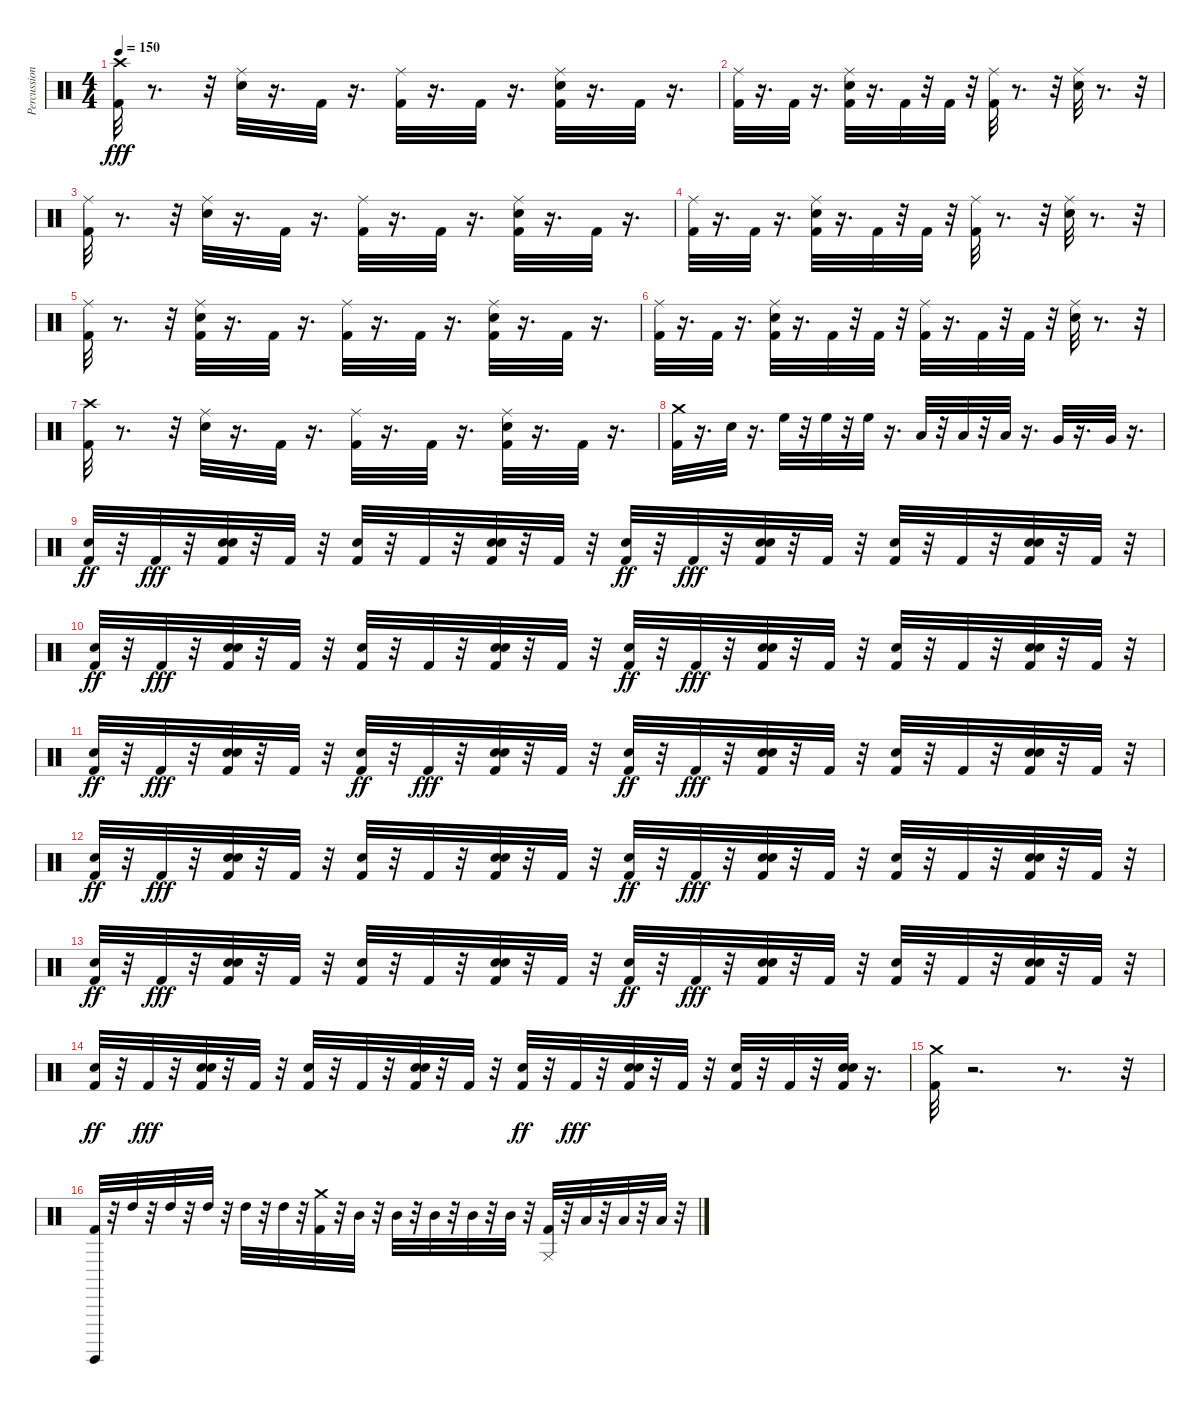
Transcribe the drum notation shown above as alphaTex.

\track ("Percussion" "Percussion") {instrument percussion}
\staff {score}
\articulation defaults
\ts (4 4)
\tempo 150
\clef neutral
\ks c
("Crash high (hit)" "Kick (hit) 2").32{dy fff} r.8{d} r.32 ("Snare (hit) 2" "Ride (middle)").32 r.16{d} "Kick (hit) 2".32 r.16{d} ("Kick (hit) 2" "Ride (middle)").32 r.16{d} "Kick (hit) 2".32 r.16{d} ("Snare (hit) 2" "Ride (middle)" "Kick (hit) 2").32 r.16{d} "Kick (hit) 2".32 r.16{d} |
("Ride (middle)" "Kick (hit) 2").32 r.16{d} "Kick (hit) 2".32 r.16{d} ("Ride (middle)" "Kick (hit) 2" "Snare (hit) 2").32 r.16{d} "Kick (hit) 2".32 r.32 "Kick (hit) 2".32 r.32 ("Ride (middle)" "Kick (hit) 2").32 r.8{d} r.32 ("Snare (hit) 2" "Ride (middle)").32 r.8{d} r.32 |
("Ride (middle)" "Kick (hit) 2").32 r.8{d} r.32 ("Snare (hit) 2" "Ride (middle)").32 r.16{d} "Kick (hit) 2".32 r.16{d} ("Kick (hit) 2" "Ride (middle)").32 r.16{d} "Kick (hit) 2".32 r.16{d} ("Ride (middle)" "Snare (hit) 2" "Kick (hit) 2").32 r.16{d} "Kick (hit) 2".32 r.16{d} |
("Ride (middle)" "Kick (hit) 2").32 r.16{d} "Kick (hit) 2".32 r.16{d} ("Ride (middle)" "Kick (hit) 2" "Snare (hit) 2").32 r.16{d} "Kick (hit) 2".32 r.32 "Kick (hit) 2".32 r.32 ("Ride (middle)" "Kick (hit) 2").32 r.8{d} r.32 ("Snare (hit) 2" "Ride (middle)").32 r.8{d} r.32 |
("Kick (hit) 2" "Ride (middle)").32 r.8{d} r.32 ("Snare (hit) 2" "Ride (middle)" "Kick (hit) 2").32 r.16{d} "Kick (hit) 2".32 r.16{d} ("Kick (hit) 2" "Ride (middle)").32 r.16{d} "Kick (hit) 2".32 r.16{d} ("Ride (middle)" "Snare (hit) 2" "Kick (hit) 2").32 r.16{d} "Kick (hit) 2".32 r.16{d} |
("Ride (middle)" "Kick (hit) 2").32 r.16{d} "Kick (hit) 2".32 r.16{d} ("Ride (middle)" "Kick (hit) 2" "Snare (hit) 2").32 r.16{d} "Kick (hit) 2".32 r.32 "Kick (hit) 2".32 r.32 ("Ride (middle)" "Kick (hit) 2").32 r.16{d} "Kick (hit) 2".32 r.32 "Kick (hit) 2".32 r.32 ("Snare (hit) 2" "Ride (middle)").32 r.8{d} r.32 |
("Crash high (hit)" "Kick (hit) 2").32 r.8{d} r.32 ("Snare (hit) 2" "Ride (middle)").32 r.16{d} "Kick (hit) 2".32 r.16{d} ("Kick (hit) 2" "Ride (middle)").32 r.16{d} "Kick (hit) 2".32 r.16{d} ("Snare (hit) 2" "Ride (middle)" "Kick (hit) 2").32 r.16{d} "Kick (hit) 2".32 r.16{d} |
("Crash medium (hit)" "Kick (hit) 2").32 r.16{d} "Electric Snare (hit)".32 r.16{d} "High Floor Tom (hit)".32 r.32 "High Floor Tom (hit)".32 r.32 "High Floor Tom (hit)".32 r.16{d} "Low Tom (hit)".32 r.32 "Low Tom (hit)".32 r.32 "Low Tom (hit)".32 r.16{d} "Very Low Tom (hit)".32 r.16{d} "Very Low Tom (hit)".32 r.16{d} |
("Kick (hit) 2" "Snare (hit)").32{dy ff} r.32 "Kick (hit) 2".32{dy fff} r.32 ("Kick (hit) 2" "Snare (hit)" "Snare (hit) 2").32 r.32 "Kick (hit) 2".32 r.32 ("Snare (hit)" "Kick (hit) 2").32 r.32 "Kick (hit) 2".32 r.32 ("Kick (hit) 2" "Snare (hit)" "Snare (hit) 2").32 r.32 "Kick (hit) 2".32 r.32 ("Kick (hit) 2" "Snare (hit)").32{dy ff} r.32 "Kick (hit) 2".32{dy fff} r.32 ("Kick (hit) 2" "Snare (hit) 2" "Snare (hit)").32 r.32 "Kick (hit) 2".32 r.32 ("Snare (hit)" "Kick (hit) 2").32 r.32 "Kick (hit) 2".32 r.32 ("Kick (hit) 2" "Snare (hit)" "Snare (hit) 2").32 r.32 "Kick (hit) 2".32 r.32 |
("Kick (hit) 2" "Snare (hit)").32{dy ff} r.32 "Kick (hit) 2".32{dy fff} r.32 ("Kick (hit) 2" "Snare (hit) 2" "Snare (hit)").32 r.32 "Kick (hit) 2".32 r.32 ("Snare (hit)" "Kick (hit) 2").32 r.32 "Kick (hit) 2".32 r.32 ("Kick (hit) 2" "Snare (hit)" "Snare (hit) 2").32 r.32 "Kick (hit) 2".32 r.32 ("Kick (hit) 2" "Snare (hit)").32{dy ff} r.32 "Kick (hit) 2".32{dy fff} r.32 ("Kick (hit) 2" "Snare (hit) 2" "Snare (hit)").32 r.32 "Kick (hit) 2".32 r.32 ("Snare (hit)" "Kick (hit) 2").32 r.32 "Kick (hit) 2".32 r.32 ("Kick (hit) 2" "Snare (hit) 2" "Snare (hit)").32 r.32 "Kick (hit) 2".32 r.32 |
("Kick (hit) 2" "Snare (hit)").32{dy ff} r.32 "Kick (hit) 2".32{dy fff} r.32 ("Kick (hit) 2" "Snare (hit) 2" "Snare (hit)").32 r.32 "Kick (hit) 2".32 r.32 ("Kick (hit) 2" "Snare (hit)").32{dy ff} r.32 "Kick (hit) 2".32{dy fff} r.32 ("Kick (hit) 2" "Snare (hit) 2" "Snare (hit)").32 r.32 "Kick (hit) 2".32 r.32 ("Kick (hit) 2" "Snare (hit)").32{dy ff} r.32 "Kick (hit) 2".32{dy fff} r.32 ("Snare (hit) 2" "Kick (hit) 2" "Snare (hit)").32 r.32 "Kick (hit) 2".32 r.32 ("Snare (hit)" "Kick (hit) 2").32 r.32 "Kick (hit) 2".32 r.32 ("Kick (hit) 2" "Snare (hit) 2" "Snare (hit)").32 r.32 "Kick (hit) 2".32 r.32 |
("Kick (hit) 2" "Snare (hit)").32{dy ff} r.32 "Kick (hit) 2".32{dy fff} r.32 ("Kick (hit) 2" "Snare (hit)" "Snare (hit) 2").32 r.32 "Kick (hit) 2".32 r.32 ("Snare (hit)" "Kick (hit) 2").32 r.32 "Kick (hit) 2".32 r.32 ("Kick (hit) 2" "Snare (hit)" "Snare (hit) 2").32 r.32 "Kick (hit) 2".32 r.32 ("Kick (hit) 2" "Snare (hit)").32{dy ff} r.32 "Kick (hit) 2".32{dy fff} r.32 ("Kick (hit) 2" "Snare (hit) 2" "Snare (hit)").32 r.32 "Kick (hit) 2".32 r.32 ("Snare (hit)" "Kick (hit) 2").32 r.32 "Kick (hit) 2".32 r.32 ("Kick (hit) 2" "Snare (hit)" "Snare (hit) 2").32 r.32 "Kick (hit) 2".32 r.32 |
("Kick (hit) 2" "Snare (hit)").32{dy ff} r.32 "Kick (hit) 2".32{dy fff} r.32 ("Kick (hit) 2" "Snare (hit)" "Snare (hit) 2").32 r.32 "Kick (hit) 2".32 r.32 ("Snare (hit)" "Kick (hit) 2").32 r.32 "Kick (hit) 2".32 r.32 ("Kick (hit) 2" "Snare (hit)" "Snare (hit) 2").32 r.32 "Kick (hit) 2".32 r.32 ("Kick (hit) 2" "Snare (hit)").32{dy ff} r.32 "Kick (hit) 2".32{dy fff} r.32 ("Kick (hit) 2" "Snare (hit) 2" "Snare (hit)").32 r.32 "Kick (hit) 2".32 r.32 ("Snare (hit)" "Kick (hit) 2").32 r.32 "Kick (hit) 2".32 r.32 ("Kick (hit) 2" "Snare (hit)" "Snare (hit) 2").32 r.32 "Kick (hit) 2".32 r.32 |
("Kick (hit) 2" "Snare (hit)").32{dy ff} r.32 "Kick (hit) 2".32{dy fff} r.32 ("Kick (hit) 2" "Snare (hit) 2" "Snare (hit)").32 r.32 "Kick (hit) 2".32 r.32 ("Snare (hit)" "Kick (hit) 2").32 r.32 "Kick (hit) 2".32 r.32 ("Kick (hit) 2" "Snare (hit)" "Snare (hit) 2").32 r.32 "Kick (hit) 2".32 r.32 ("Kick (hit) 2" "Snare (hit)").32{dy ff} r.32 "Kick (hit) 2".32{dy fff} r.32 ("Kick (hit) 2" "Snare (hit) 2" "Snare (hit)").32 r.32 "Kick (hit) 2".32 r.32 ("Snare (hit)" "Kick (hit) 2").32 r.32 "Kick (hit) 2".32 r.32 ("Kick (hit) 2" "Snare (hit) 2" "Snare (hit)").32 r.16{d} |
("Crash medium (hit)" "Kick (hit) 2").32 r.2{d} r.8{d} r.32 |
("Kick (hit) 2" "Surdo (hit)").32 r.32 "High Tom (hit)".32 r.32 "High Tom (hit)".32 r.32 "High Tom (hit)".32 r.32 "High Tom (hit)".32 r.32 "High Tom (hit)".32 r.32 ("Kick (hit) 2" "Crash medium (hit)").32 r.32 "Mid Tom (hit)".32 r.32 "Mid Tom (hit)".32 r.32 "Mid Tom (hit)".32 r.32 "Mid Tom (hit)".32 r.32 "Mid Tom (hit)".32 r.32 ("Conga high (slap)" "Kick (hit) 2").32 r.32 "Low Tom (hit)".32 r.32 "Low Tom (hit)".32 r.32 "Low Tom (hit)".32 r.32
